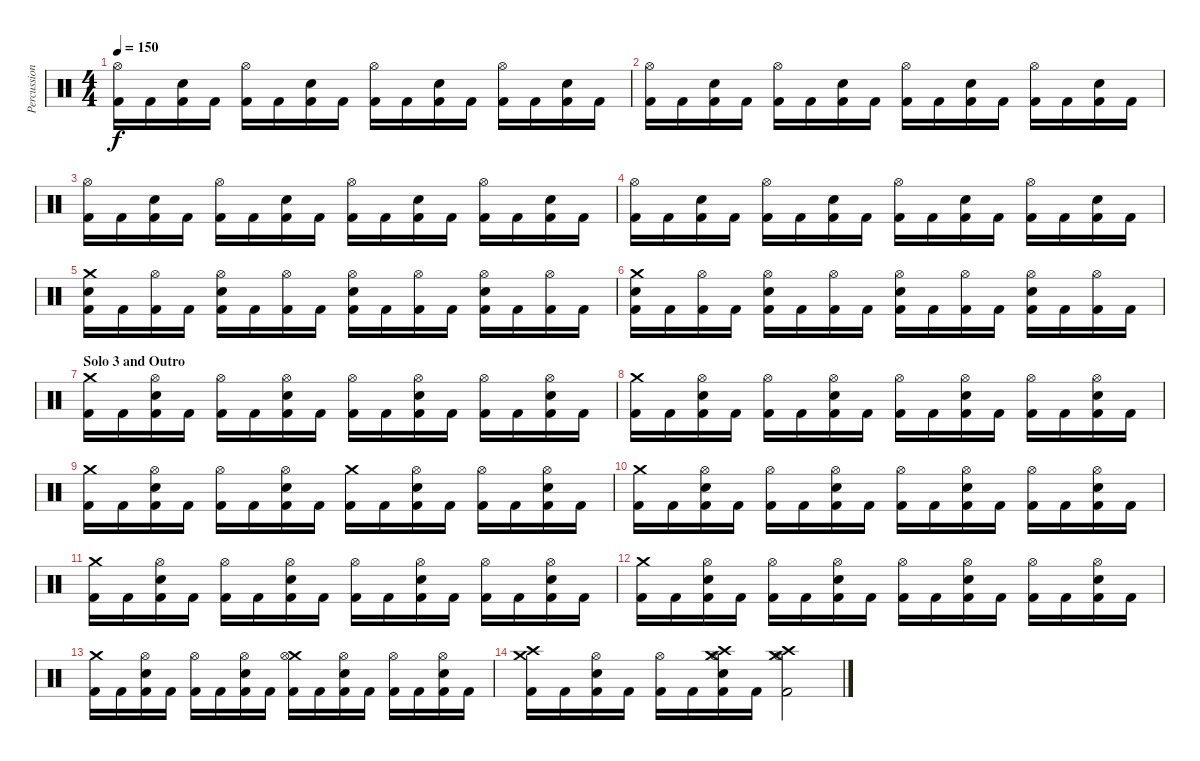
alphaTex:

\track ("Percussion" "Percussion") {instrument percussion}
\staff {score}
\articulation defaults
\ts (4 4)
\tempo 150
\clef neutral
\ks c
("Kick (hit) 2" "Hi-Hat (open)").16{dy f} "Kick (hit) 2".16 ("Kick (hit) 2" "Snare (hit) 2").16 "Kick (hit) 2".16 ("Kick (hit) 2" "Hi-Hat (open)").16 "Kick (hit) 2".16 ("Kick (hit) 2" "Snare (hit) 2").16 "Kick (hit) 2".16 ("Kick (hit) 2" "Hi-Hat (open)").16 "Kick (hit) 2".16 ("Kick (hit) 2" "Snare (hit) 2").16 "Kick (hit) 2".16 ("Kick (hit) 2" "Hi-Hat (open)").16 "Kick (hit) 2".16 ("Kick (hit) 2" "Snare (hit) 2").16 "Kick (hit) 2".16 |
("Kick (hit) 2" "Hi-Hat (open)").16 "Kick (hit) 2".16 ("Kick (hit) 2" "Snare (hit) 2").16 "Kick (hit) 2".16 ("Kick (hit) 2" "Hi-Hat (open)").16 "Kick (hit) 2".16 ("Kick (hit) 2" "Snare (hit) 2").16 "Kick (hit) 2".16 ("Kick (hit) 2" "Hi-Hat (open)").16 "Kick (hit) 2".16 ("Kick (hit) 2" "Snare (hit) 2").16 "Kick (hit) 2".16 ("Kick (hit) 2" "Hi-Hat (open)").16 "Kick (hit) 2".16 ("Kick (hit) 2" "Snare (hit) 2").16 "Kick (hit) 2".16 |
("Kick (hit) 2" "Hi-Hat (open)").16 "Kick (hit) 2".16 ("Kick (hit) 2" "Snare (hit) 2").16 "Kick (hit) 2".16 ("Kick (hit) 2" "Hi-Hat (open)").16 "Kick (hit) 2".16 ("Kick (hit) 2" "Snare (hit) 2").16 "Kick (hit) 2".16 ("Kick (hit) 2" "Hi-Hat (open)").16 "Kick (hit) 2".16 ("Kick (hit) 2" "Snare (hit) 2").16 "Kick (hit) 2".16 ("Kick (hit) 2" "Hi-Hat (open)").16 "Kick (hit) 2".16 ("Kick (hit) 2" "Snare (hit) 2").16 "Kick (hit) 2".16 |
("Kick (hit) 2" "Hi-Hat (open)").16 "Kick (hit) 2".16 ("Kick (hit) 2" "Snare (hit) 2").16 "Kick (hit) 2".16 ("Kick (hit) 2" "Hi-Hat (open)").16 "Kick (hit) 2".16 ("Kick (hit) 2" "Snare (hit) 2").16 "Kick (hit) 2".16 ("Kick (hit) 2" "Hi-Hat (open)").16 "Kick (hit) 2".16 ("Kick (hit) 2" "Snare (hit) 2").16 "Kick (hit) 2".16 ("Kick (hit) 2" "Hi-Hat (open)").16 "Kick (hit) 2".16 ("Kick (hit) 2" "Snare (hit) 2").16 "Kick (hit) 2".16 |
("Crash medium (hit)" "Snare (hit) 2" "Kick (hit) 2").16 "Kick (hit) 2".16 ("Hi-Hat (open)" "Kick (hit) 2").16 "Kick (hit) 2".16 ("Hi-Hat (open)" "Snare (hit) 2" "Kick (hit) 2").16 "Kick (hit) 2".16 ("Hi-Hat (open)" "Kick (hit) 2").16 "Kick (hit) 2".16 ("Hi-Hat (open)" "Snare (hit) 2" "Kick (hit) 2").16 "Kick (hit) 2".16 ("Hi-Hat (open)" "Kick (hit) 2").16 "Kick (hit) 2".16 ("Hi-Hat (open)" "Snare (hit) 2" "Kick (hit) 2").16 "Kick (hit) 2".16 ("Hi-Hat (open)" "Kick (hit) 2").16 "Kick (hit) 2".16 |
("Crash medium (hit)" "Snare (hit) 2" "Kick (hit) 2").16 "Kick (hit) 2".16 ("Hi-Hat (open)" "Kick (hit) 2").16 "Kick (hit) 2".16 ("Hi-Hat (open)" "Snare (hit) 2" "Kick (hit) 2").16 "Kick (hit) 2".16 ("Hi-Hat (open)" "Kick (hit) 2").16 "Kick (hit) 2".16 ("Hi-Hat (open)" "Snare (hit) 2" "Kick (hit) 2").16 "Kick (hit) 2".16 ("Hi-Hat (open)" "Kick (hit) 2").16 "Kick (hit) 2".16 ("Hi-Hat (open)" "Snare (hit) 2" "Kick (hit) 2").16 "Kick (hit) 2".16 ("Hi-Hat (open)" "Kick (hit) 2").16 "Kick (hit) 2".16 |
\section ("" "Solo 3 and Outro")
("Crash medium (hit)" "Kick (hit) 2").16 "Kick (hit) 2".16 ("Hi-Hat (open)" "Snare (hit) 2" "Kick (hit) 2").16 "Kick (hit) 2".16 ("Hi-Hat (open)" "Kick (hit) 2").16 "Kick (hit) 2".16 ("Hi-Hat (open)" "Snare (hit) 2" "Kick (hit) 2").16 "Kick (hit) 2".16 ("Hi-Hat (open)" "Kick (hit) 2").16 "Kick (hit) 2".16 ("Hi-Hat (open)" "Snare (hit) 2" "Kick (hit) 2").16 "Kick (hit) 2".16 ("Hi-Hat (open)" "Kick (hit) 2").16 "Kick (hit) 2".16 ("Hi-Hat (open)" "Snare (hit) 2" "Kick (hit) 2").16 "Kick (hit) 2".16 |
("Crash medium (hit)" "Kick (hit) 2").16 "Kick (hit) 2".16 ("Hi-Hat (open)" "Snare (hit) 2" "Kick (hit) 2").16 "Kick (hit) 2".16 ("Hi-Hat (open)" "Kick (hit) 2").16 "Kick (hit) 2".16 ("Hi-Hat (open)" "Snare (hit) 2" "Kick (hit) 2").16 "Kick (hit) 2".16 ("Hi-Hat (open)" "Kick (hit) 2").16 "Kick (hit) 2".16 ("Hi-Hat (open)" "Snare (hit) 2" "Kick (hit) 2").16 "Kick (hit) 2".16 ("Hi-Hat (open)" "Kick (hit) 2").16 "Kick (hit) 2".16 ("Hi-Hat (open)" "Snare (hit) 2" "Kick (hit) 2").16 "Kick (hit) 2".16 |
("Crash medium (hit)" "Kick (hit) 2").16 "Kick (hit) 2".16 ("Hi-Hat (open)" "Snare (hit) 2" "Kick (hit) 2").16 "Kick (hit) 2".16 ("Hi-Hat (open)" "Kick (hit) 2").16 "Kick (hit) 2".16 ("Hi-Hat (open)" "Snare (hit) 2" "Kick (hit) 2").16 "Kick (hit) 2".16 ("Crash medium (hit)" "Kick (hit) 2").16 "Kick (hit) 2".16 ("Hi-Hat (open)" "Snare (hit) 2" "Kick (hit) 2").16 "Kick (hit) 2".16 ("Hi-Hat (open)" "Kick (hit) 2").16 "Kick (hit) 2".16 ("Hi-Hat (open)" "Snare (hit) 2" "Kick (hit) 2").16 "Kick (hit) 2".16 |
("Crash medium (hit)" "Kick (hit) 2").16 "Kick (hit) 2".16 ("Hi-Hat (open)" "Snare (hit) 2" "Kick (hit) 2").16 "Kick (hit) 2".16 ("Hi-Hat (open)" "Kick (hit) 2").16 "Kick (hit) 2".16 ("Hi-Hat (open)" "Snare (hit) 2" "Kick (hit) 2").16 "Kick (hit) 2".16 ("Hi-Hat (open)" "Kick (hit) 2").16 "Kick (hit) 2".16 ("Hi-Hat (open)" "Snare (hit) 2" "Kick (hit) 2").16 "Kick (hit) 2".16 ("Hi-Hat (open)" "Kick (hit) 2").16 "Kick (hit) 2".16 ("Hi-Hat (open)" "Snare (hit) 2" "Kick (hit) 2").16 "Kick (hit) 2".16 |
("Crash medium (hit)" "Kick (hit) 2").16 "Kick (hit) 2".16 ("Hi-Hat (open)" "Snare (hit) 2" "Kick (hit) 2").16 "Kick (hit) 2".16 ("Hi-Hat (open)" "Kick (hit) 2").16 "Kick (hit) 2".16 ("Hi-Hat (open)" "Snare (hit) 2" "Kick (hit) 2").16 "Kick (hit) 2".16 ("Hi-Hat (open)" "Kick (hit) 2").16 "Kick (hit) 2".16 ("Hi-Hat (open)" "Snare (hit) 2" "Kick (hit) 2").16 "Kick (hit) 2".16 ("Hi-Hat (open)" "Kick (hit) 2").16 "Kick (hit) 2".16 ("Hi-Hat (open)" "Snare (hit) 2" "Kick (hit) 2").16 "Kick (hit) 2".16 |
("Crash medium (hit)" "Kick (hit) 2").16 "Kick (hit) 2".16 ("Hi-Hat (open)" "Snare (hit) 2" "Kick (hit) 2").16 "Kick (hit) 2".16 ("Hi-Hat (open)" "Kick (hit) 2").16 "Kick (hit) 2".16 ("Hi-Hat (open)" "Snare (hit) 2" "Kick (hit) 2").16 "Kick (hit) 2".16 ("Hi-Hat (open)" "Kick (hit) 2").16 "Kick (hit) 2".16 ("Hi-Hat (open)" "Snare (hit) 2" "Kick (hit) 2").16 "Kick (hit) 2".16 ("Hi-Hat (open)" "Kick (hit) 2").16 "Kick (hit) 2".16 ("Hi-Hat (open)" "Snare (hit) 2" "Kick (hit) 2").16 "Kick (hit) 2".16 |
("Crash medium (hit)" "Kick (hit) 2").16 "Kick (hit) 2".16 ("Hi-Hat (open)" "Snare (hit) 2" "Kick (hit) 2").16 "Kick (hit) 2".16 ("Hi-Hat (open)" "Kick (hit) 2").16 "Kick (hit) 2".16 ("Hi-Hat (open)" "Snare (hit) 2" "Kick (hit) 2").16 "Kick (hit) 2".16 ("Crash medium (hit)" "Hi-Hat (open)" "Kick (hit) 2").16 "Kick (hit) 2".16 ("Hi-Hat (open)" "Snare (hit) 2" "Kick (hit) 2").16 "Kick (hit) 2".16 ("Hi-Hat (open)" "Kick (hit) 2").16 "Kick (hit) 2".16 ("Hi-Hat (open)" "Snare (hit) 2" "Kick (hit) 2").16 "Kick (hit) 2".16 |
("Crash high (hit)" "Crash medium (hit)" "Kick (hit) 2").16 "Kick (hit) 2".16 ("Hi-Hat (open)" "Snare (hit) 2" "Kick (hit) 2").16 "Kick (hit) 2".16 ("Hi-Hat (open)" "Kick (hit) 2").16 "Kick (hit) 2".16 ("Crash high (hit)" "Crash medium (hit)" "Hi-Hat (open)" "Snare (hit) 2" "Kick (hit) 2").16 "Kick (hit) 2".16 ("Crash high (hit)" "Crash medium (hit)" "Hi-Hat (open)" "Kick (hit) 2").2
